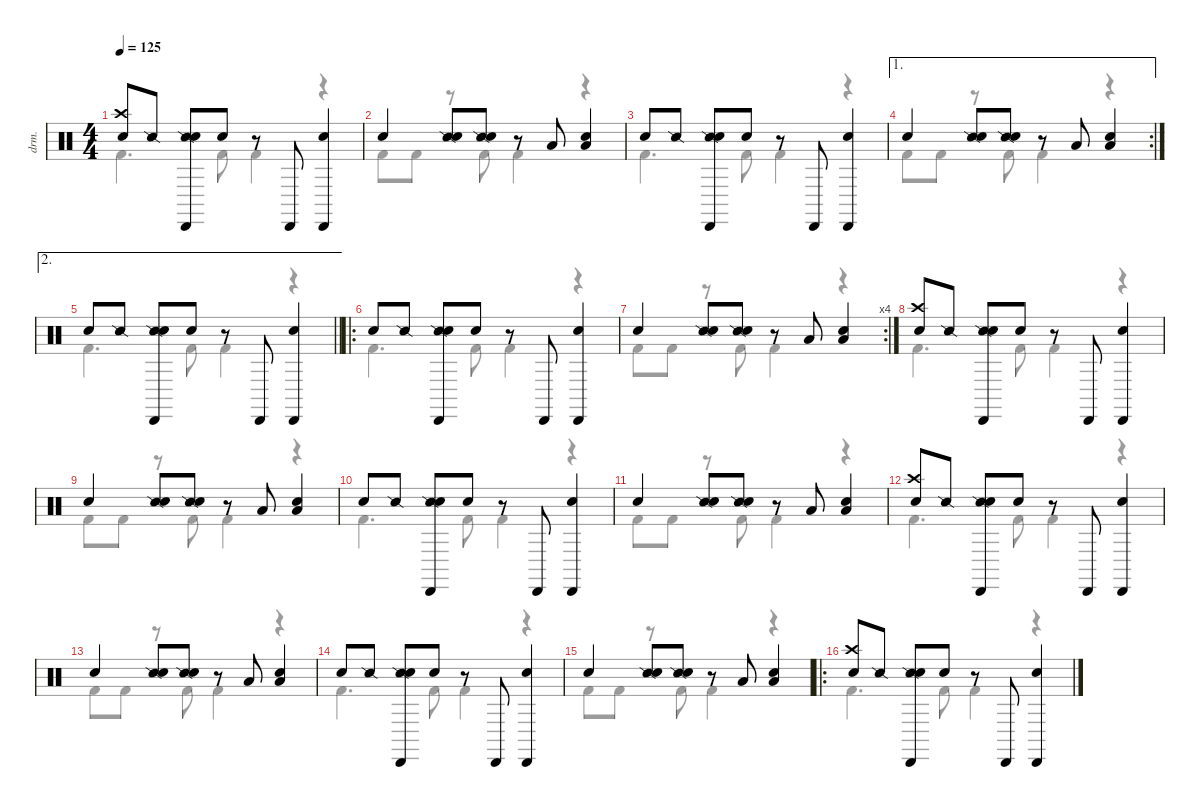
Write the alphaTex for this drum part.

\defaultSystemsLayout 4
\hideDynamics
\bracketExtendMode nobrackets
\otherSystemsTrackNameOrientation horizontal
\track ("Drums" "drm.") {instrument percussion}
\staff {score}
\articulation defaults
\voice
\ts (4 4)
\tempo 125
\clef neutral
\ks c
("Crash high (hit)" "Hand Clap (hit)").8{dy mp beam Up} "Snare (side stick) 2".8{dy f beam Up} ("Snare (side stick) 2" "Cabasa (hit)" "Snare (hit) 2").8{beam Up} "Hand Clap (hit)".8{dy p beam Up} r.8{beam Up} "Cabasa (hit)".8{dy f beam Up} ("Cabasa (hit)" "Snare (hit) 2").4{beam Up} |
"Hand Clap (hit)".4{dy p beam Up} ("Snare (side stick) 2" "Snare (hit) 2").8{dy mf beam Up} ("Snare (side stick) 2" "Hand Clap (hit)").8{beam Up} r.8{beam Up} "Low Tom (hit)".8{dy f beam Up} ("Low Tom (hit)" "Snare (hit) 2").4{beam Up} |
"Hand Clap (hit)".8{dy p beam Up} "Snare (side stick) 2".8{dy f beam Up} ("Snare (side stick) 2" "Cabasa (hit)" "Snare (hit) 2").8{beam Up} "Hand Clap (hit)".8{dy p beam Up} r.8{beam Up} "Cabasa (hit)".8{dy f beam Up} ("Cabasa (hit)" "Snare (hit) 2").4{beam Up} |
\ae 1
\rc 2 "Hand Clap (hit)".4{dy p beam Up}
("Snare (side stick) 2" "Snare (hit) 2").8{dy mf beam Up} ("Snare (side stick) 2" "Hand Clap (hit)").8{beam Up} r.8{beam Up} "Low Tom (hit)".8{dy f beam Up} ("Low Tom (hit)" "Snare (hit) 2").4{beam Up} |
\ae 2
\barLineRight lightlight "Hand Clap (hit)".8{dy p beam Up} "Snare (side stick) 2".8{dy f beam Up}
("Snare (side stick) 2" "Cabasa (hit)" "Snare (hit) 2").8{beam Up} "Hand Clap (hit)".8{dy p beam Up} r.8{beam Up} "Cabasa (hit)".8{dy f beam Up} ("Cabasa (hit)" "Snare (hit) 2").4{beam Up} |
\ro "Hand Clap (hit)".8{dy p beam Up} "Snare (side stick) 2".8{dy f beam Up}
("Snare (side stick) 2" "Cabasa (hit)" "Snare (hit) 2").8{beam Up} "Hand Clap (hit)".8{dy p beam Up} r.8{beam Up} "Cabasa (hit)".8{dy f beam Up} ("Cabasa (hit)" "Snare (hit) 2").4{beam Up} |
\rc 4 "Hand Clap (hit)".4{dy p beam Up}
("Snare (side stick) 2" "Snare (hit) 2").8{dy mf beam Up} ("Snare (side stick) 2" "Hand Clap (hit)").8{beam Up} r.8{beam Up} "Low Tom (hit)".8{dy f beam Up} ("Low Tom (hit)" "Snare (hit) 2").4{beam Up} |
("Crash high (hit)" "Hand Clap (hit)").8{dy mp beam Up} "Snare (side stick) 2".8{dy f beam Up} ("Snare (side stick) 2" "Cabasa (hit)" "Snare (hit) 2").8{beam Up} "Hand Clap (hit)".8{dy p beam Up} r.8{beam Up} "Cabasa (hit)".8{dy f beam Up} ("Cabasa (hit)" "Snare (hit) 2").4{beam Up} |
"Hand Clap (hit)".4{dy p beam Up} ("Snare (side stick) 2" "Snare (hit) 2").8{dy mf beam Up} ("Snare (side stick) 2" "Hand Clap (hit)").8{beam Up} r.8{beam Up} "Low Tom (hit)".8{dy f beam Up} ("Low Tom (hit)" "Snare (hit) 2").4{beam Up} |
"Hand Clap (hit)".8{dy p beam Up} "Snare (side stick) 2".8{dy f beam Up} ("Snare (side stick) 2" "Cabasa (hit)" "Snare (hit) 2").8{beam Up} "Hand Clap (hit)".8{dy p beam Up} r.8{beam Up} "Cabasa (hit)".8{dy f beam Up} ("Cabasa (hit)" "Snare (hit) 2").4{beam Up} |
"Hand Clap (hit)".4{dy p beam Up} ("Snare (side stick) 2" "Snare (hit) 2").8{dy mf beam Up} ("Snare (side stick) 2" "Hand Clap (hit)").8{beam Up} r.8{beam Up} "Low Tom (hit)".8{dy f beam Up} ("Low Tom (hit)" "Snare (hit) 2").4{beam Up} |
("Crash high (hit)" "Hand Clap (hit)").8{dy mp beam Up} "Snare (side stick) 2".8{dy f beam Up} ("Snare (side stick) 2" "Cabasa (hit)" "Snare (hit) 2").8{beam Up} "Hand Clap (hit)".8{dy p beam Up} r.8{beam Up} "Cabasa (hit)".8{dy f beam Up} ("Cabasa (hit)" "Snare (hit) 2").4{beam Up} |
"Hand Clap (hit)".4{dy p beam Up} ("Snare (side stick) 2" "Snare (hit) 2").8{dy mf beam Up} ("Snare (side stick) 2" "Hand Clap (hit)").8{beam Up} r.8{beam Up} "Low Tom (hit)".8{dy f beam Up} ("Low Tom (hit)" "Snare (hit) 2").4{beam Up} |
"Hand Clap (hit)".8{dy p beam Up} "Snare (side stick) 2".8{dy f beam Up} ("Snare (side stick) 2" "Cabasa (hit)" "Snare (hit) 2").8{beam Up} "Hand Clap (hit)".8{dy p beam Up} r.8{beam Up} "Cabasa (hit)".8{dy f beam Up} ("Cabasa (hit)" "Snare (hit) 2").4{beam Up} |
"Hand Clap (hit)".4{dy p beam Up} ("Snare (side stick) 2" "Snare (hit) 2").8{dy mf beam Up} ("Snare (side stick) 2" "Hand Clap (hit)").8{beam Up} r.8{beam Up} "Low Tom (hit)".8{dy f beam Up} ("Low Tom (hit)" "Snare (hit) 2").4{beam Up} |
\ro
("Crash high (hit)" "Hand Clap (hit)").8{dy mp beam Up} "Snare (side stick) 2".8{dy f beam Up} ("Snare (side stick) 2" "Cabasa (hit)" "Snare (hit) 2").8{beam Up} "Hand Clap (hit)".8{dy p beam Up} r.8{beam Up} "Cabasa (hit)".8{dy f beam Up} ("Cabasa (hit)" "Snare (hit) 2").4{beam Up}
\voice
\clef neutral
\ottava regular
\simile none
\ks c "Kick (hit) 2".4{d dy ff beam Down} "Kick (hit) 2".8{beam Down} "Kick (hit) 2".4{dy p beam Down}
r.4{beam Down} |
"Kick (hit) 2".8{dy ff beam Down} "Kick (hit) 2".8{dy p beam Down} r.8{beam Down} "Kick (hit) 2".8{dy ff beam Down} "Kick (hit) 2".4{dy p beam Down} r.4{beam Down} |
"Kick (hit) 2".4{d dy ff beam Down} "Kick (hit) 2".8{beam Down} "Kick (hit) 2".4{dy p beam Down} r.4{beam Down} |
"Kick (hit) 2".8{dy ff beam Down} "Kick (hit) 2".8{dy p beam Down} r.8{beam Down} "Kick (hit) 2".8{dy ff beam Down} "Kick (hit) 2".4{dy p beam Down} r.4{beam Down} |
\barLineRight lightlight "Kick (hit) 2".4{d dy ff beam Down} "Kick (hit) 2".8{dy p beam Down} "Kick (hit) 2".4{dy ff beam Down}
r.4{beam Down} |
"Kick (hit) 2".4{d beam Down} "Kick (hit) 2".8{beam Down} "Kick (hit) 2".4{dy p beam Down} r.4{beam Down} |
"Kick (hit) 2".8{dy ff beam Down} "Kick (hit) 2".8{dy p beam Down} r.8{beam Down} "Kick (hit) 2".8{dy ff beam Down} "Kick (hit) 2".4{dy p beam Down} r.4{beam Down} |
"Kick (hit) 2".4{d dy ff beam Down} "Kick (hit) 2".8{beam Down} "Kick (hit) 2".4{dy p beam Down} r.4{beam Down} |
"Kick (hit) 2".8{dy ff beam Down} "Kick (hit) 2".8{dy p beam Down} r.8{beam Down} "Kick (hit) 2".8{dy ff beam Down} "Kick (hit) 2".4{dy p beam Down} r.4{beam Down} |
"Kick (hit) 2".4{d dy ff beam Down} "Kick (hit) 2".8{beam Down} "Kick (hit) 2".4{dy p beam Down} r.4{beam Down} |
"Kick (hit) 2".8{dy ff beam Down} "Kick (hit) 2".8{dy p beam Down} r.8{beam Down} "Kick (hit) 2".8{dy ff beam Down} "Kick (hit) 2".4{dy p beam Down} r.4{beam Down} |
"Kick (hit) 2".4{d dy ff beam Down} "Kick (hit) 2".8{beam Down} "Kick (hit) 2".4{dy p beam Down} r.4{beam Down} |
"Kick (hit) 2".8{dy ff beam Down} "Kick (hit) 2".8{dy p beam Down} r.8{beam Down} "Kick (hit) 2".8{dy ff beam Down} "Kick (hit) 2".4{dy p beam Down} r.4{beam Down} |
"Kick (hit) 2".4{d dy ff beam Down} "Kick (hit) 2".8{beam Down} "Kick (hit) 2".4{dy p beam Down} r.4{beam Down} |
"Kick (hit) 2".8{dy ff beam Down} "Kick (hit) 2".8{dy p beam Down} r.8{beam Down} "Kick (hit) 2".8{dy ff beam Down} "Kick (hit) 2".4{dy p beam Down} r.4{beam Down} |
"Kick (hit) 2".4{d dy ff beam Down} "Kick (hit) 2".8{beam Down} "Kick (hit) 2".4{dy p beam Down} r.4{beam Down}
